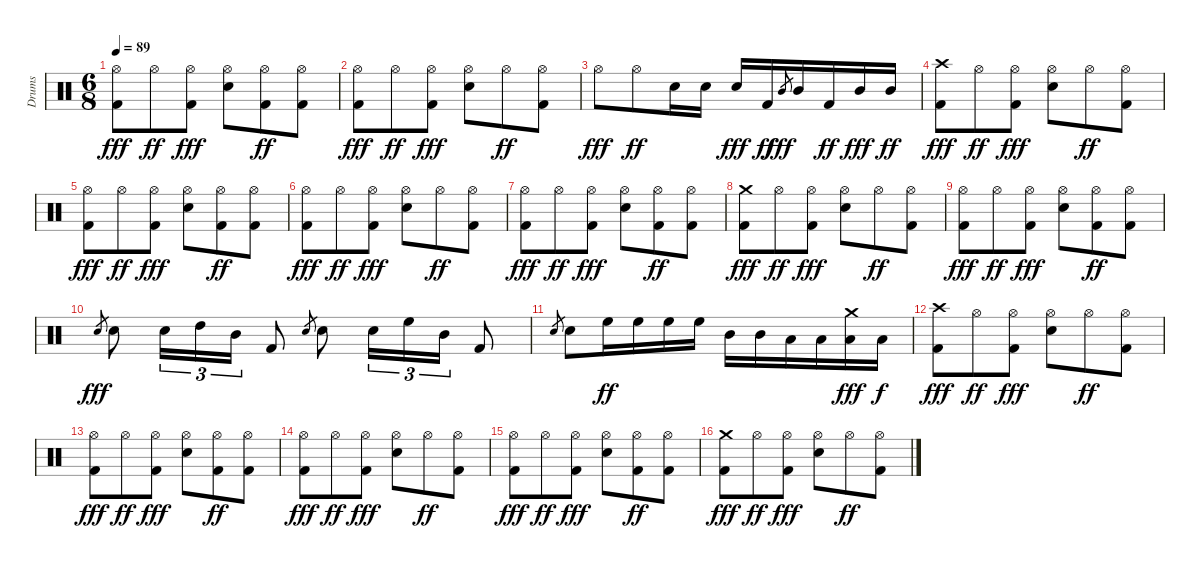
\track ("Drums" "Drums") {instrument percussion}
\staff {score}
\articulation defaults
\ts (6 8)
\tempo 89
\clef neutral
\ks c
("Hi-Hat (open)" "Kick (hit) 2").8{dy fff} "Hi-Hat (open)".8{dy ff} ("Hi-Hat (open)" "Kick (hit) 2").8{dy fff} ("Hi-Hat (open)" "Snare (hit) 2").8 ("Hi-Hat (open)" "Kick (hit) 2").8{dy ff} ("Hi-Hat (open)" "Kick (hit) 2").8 |
("Hi-Hat (open)" "Kick (hit) 2").8{dy fff} "Hi-Hat (open)".8{dy ff} ("Hi-Hat (open)" "Kick (hit) 2").8{dy fff} ("Hi-Hat (open)" "Snare (hit) 2").8 "Hi-Hat (open)".8{dy ff} ("Hi-Hat (open)" "Kick (hit) 2").8 |
"Hi-Hat (open)".8{dy fff} "Hi-Hat (open)".8{dy ff} "Electric Snare (hit)".16 "Electric Snare (hit)".16 "Electric Snare (hit)".16{dy fff} "Kick (hit) 2".16{dy ff} "Mid Tom (hit)".8{gr dy fff} "Mid Tom (hit)".16 "Kick (hit) 2".16{dy ff} "Mid Tom (hit)".16{dy fff} "Mid Tom (hit)".16{dy ff} |
("Kick (hit) 2" "Crash high (hit)").8{dy fff} "Hi-Hat (open)".8{dy ff} ("Hi-Hat (open)" "Kick (hit) 2").8{dy fff} ("Hi-Hat (open)" "Snare (hit) 2").8 "Hi-Hat (open)".8{dy ff} ("Hi-Hat (open)" "Kick (hit) 2").8 |
("Hi-Hat (open)" "Kick (hit) 2").8{dy fff} "Hi-Hat (open)".8{dy ff} ("Hi-Hat (open)" "Kick (hit) 2").8{dy fff} ("Hi-Hat (open)" "Snare (hit) 2").8 ("Hi-Hat (open)" "Kick (hit) 2").8{dy ff} ("Hi-Hat (open)" "Kick (hit) 2").8 |
("Hi-Hat (open)" "Kick (hit) 2").8{dy fff} "Hi-Hat (open)".8{dy ff} ("Hi-Hat (open)" "Kick (hit) 2").8{dy fff} ("Hi-Hat (open)" "Snare (hit) 2").8 "Hi-Hat (open)".8{dy ff} ("Hi-Hat (open)" "Kick (hit) 2").8 |
("Hi-Hat (open)" "Kick (hit) 2").8{dy fff} "Hi-Hat (open)".8{dy ff} ("Hi-Hat (open)" "Kick (hit) 2").8{dy fff} ("Hi-Hat (open)" "Snare (hit) 2").8 ("Hi-Hat (open)" "Kick (hit) 2").8{dy ff} ("Hi-Hat (open)" "Kick (hit) 2").8 |
("Kick (hit) 2" "Crash medium (hit)").8{dy fff} "Hi-Hat (open)".8{dy ff} ("Hi-Hat (open)" "Kick (hit) 2").8{dy fff} ("Hi-Hat (open)" "Snare (hit) 2").8 "Hi-Hat (open)".8{dy ff} ("Hi-Hat (open)" "Kick (hit) 2").8 |
("Hi-Hat (open)" "Kick (hit) 2").8{dy fff} "Hi-Hat (open)".8{dy ff} ("Hi-Hat (open)" "Kick (hit) 2").8{dy fff} ("Hi-Hat (open)" "Snare (hit) 2").8 ("Hi-Hat (open)" "Kick (hit) 2").8{dy ff} ("Hi-Hat (open)" "Kick (hit) 2").8 |
"Snare (hit) 2".8{gr dy fff} "Snare (hit) 2".8 "Snare (hit) 2".16{tu (3 2)} "High Tom (hit)".16{tu (3 2)} "Mid Tom (hit)".16{tu (3 2)} "Kick (hit) 2".8 "Snare (hit) 2".8{gr} "Snare (hit) 2".8 "Snare (hit) 2".16{tu (3 2)} "High Floor Tom (hit)".16{tu (3 2)} "Mid Tom (hit)".16{tu (3 2)} "Kick (hit) 2".8 |
"Electric Snare (hit)".8{gr} "Electric Snare (hit)".8 "High Floor Tom (hit)".16{dy ff} "High Floor Tom (hit)".16 "High Floor Tom (hit)".16 "High Floor Tom (hit)".16 "Mid Tom (hit)".16 "Mid Tom (hit)".16 "Low Tom (hit)".16 "Low Tom (hit)".16 ("Low Tom (hit)" "Crash medium (hit)").16{dy fff} "Low Tom (hit)".16{dy f} |
("Kick (hit) 2" "Crash high (hit)").8{dy fff} "Hi-Hat (open)".8{dy ff} ("Hi-Hat (open)" "Kick (hit) 2").8{dy fff} ("Hi-Hat (open)" "Snare (hit) 2").8 "Hi-Hat (open)".8{dy ff} ("Hi-Hat (open)" "Kick (hit) 2").8 |
("Hi-Hat (open)" "Kick (hit) 2").8{dy fff} "Hi-Hat (open)".8{dy ff} ("Hi-Hat (open)" "Kick (hit) 2").8{dy fff} ("Hi-Hat (open)" "Snare (hit) 2").8 ("Hi-Hat (open)" "Kick (hit) 2").8{dy ff} ("Hi-Hat (open)" "Kick (hit) 2").8 |
("Hi-Hat (open)" "Kick (hit) 2").8{dy fff} "Hi-Hat (open)".8{dy ff} ("Hi-Hat (open)" "Kick (hit) 2").8{dy fff} ("Hi-Hat (open)" "Snare (hit) 2").8 "Hi-Hat (open)".8{dy ff} ("Hi-Hat (open)" "Kick (hit) 2").8 |
("Hi-Hat (open)" "Kick (hit) 2").8{dy fff} "Hi-Hat (open)".8{dy ff} ("Hi-Hat (open)" "Kick (hit) 2").8{dy fff} ("Hi-Hat (open)" "Snare (hit) 2").8 ("Hi-Hat (open)" "Kick (hit) 2").8{dy ff} ("Hi-Hat (open)" "Kick (hit) 2").8 |
("Kick (hit) 2" "Crash medium (hit)").8{dy fff} "Hi-Hat (open)".8{dy ff} ("Hi-Hat (open)" "Kick (hit) 2").8{dy fff} ("Hi-Hat (open)" "Snare (hit) 2").8 "Hi-Hat (open)".8{dy ff} ("Hi-Hat (open)" "Kick (hit) 2").8
